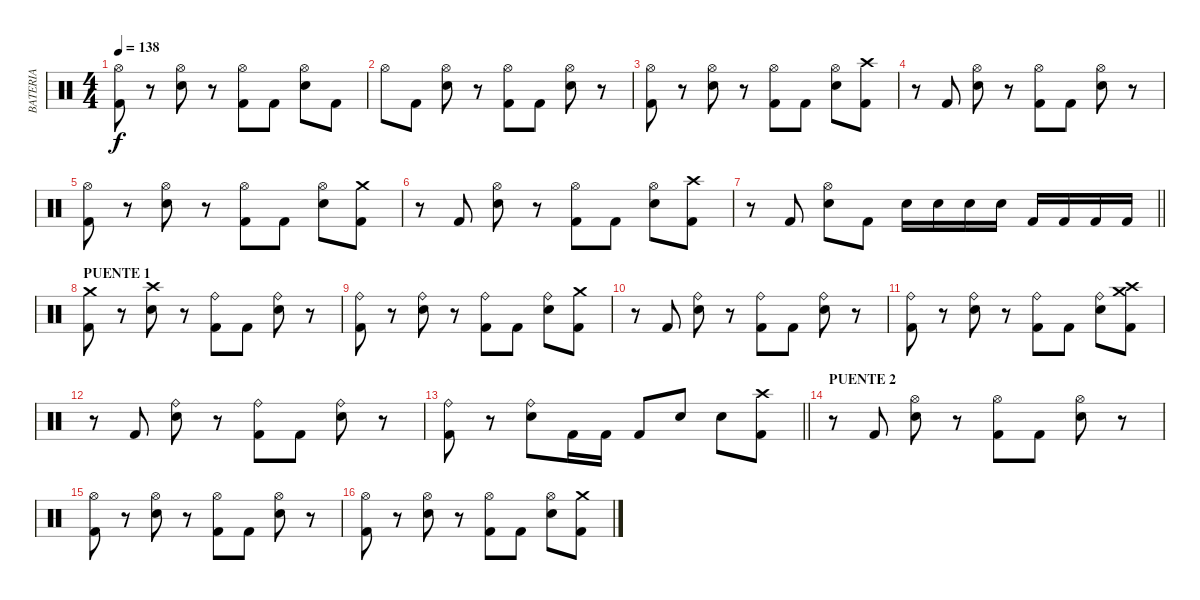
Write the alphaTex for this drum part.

\track ("BATERIA" "BATERIA") {instrument percussion}
\staff {score}
\articulation defaults
\ts (4 4)
\tempo 138
\clef neutral
\ks c
("Kick (hit) 2" "Hi-Hat (open)").8{dy f} r.8 ("Electric Snare (hit)" "Hi-Hat (open)").8 r.8 ("Kick (hit) 2" "Hi-Hat (open)").8 "Kick (hit) 2".8 ("Electric Snare (hit)" "Hi-Hat (open)").8 "Kick (hit) 2".8 |
"Hi-Hat (open)".8 "Kick (hit) 2".8 ("Electric Snare (hit)" "Hi-Hat (open)").8 r.8 ("Kick (hit) 2" "Hi-Hat (open)").8 "Kick (hit) 2".8 ("Electric Snare (hit)" "Hi-Hat (open)").8 r.8 |
("Kick (hit) 2" "Hi-Hat (open)").8 r.8 ("Electric Snare (hit)" "Hi-Hat (open)").8 r.8 ("Kick (hit) 2" "Hi-Hat (open)").8 "Kick (hit) 2".8 ("Electric Snare (hit)" "Hi-Hat (open)").8 ("Kick (hit) 2" "Crash high (hit)").8 |
r.8 "Kick (hit) 2".8 ("Electric Snare (hit)" "Hi-Hat (open)").8 r.8 ("Kick (hit) 2" "Hi-Hat (open)").8 "Kick (hit) 2".8 ("Electric Snare (hit)" "Hi-Hat (open)").8 r.8 |
("Kick (hit) 2" "Hi-Hat (open)").8 r.8 ("Electric Snare (hit)" "Hi-Hat (open)").8 r.8 ("Kick (hit) 2" "Hi-Hat (open)").8 "Kick (hit) 2".8 ("Electric Snare (hit)" "Hi-Hat (open)").8 ("Kick (hit) 2" "Crash medium (hit)").8 |
r.8 "Kick (hit) 2".8 ("Electric Snare (hit)" "Hi-Hat (open)").8 r.8 ("Kick (hit) 2" "Hi-Hat (open)").8 "Kick (hit) 2".8 ("Electric Snare (hit)" "Hi-Hat (open)").8 ("Kick (hit) 2" "Crash high (hit)").8 |
\barLineRight lightlight
r.8 "Kick (hit) 2".8 ("Electric Snare (hit)" "Hi-Hat (open)").8 "Kick (hit) 2".8 "Electric Snare (hit)".16 "Electric Snare (hit)".16 "Electric Snare (hit)".16 "Electric Snare (hit)".16 "Kick (hit) 2".16 "Kick (hit) 2".16 "Kick (hit) 2".16 "Kick (hit) 2".16 |
\section ("" "PUENTE 1")
("Kick (hit) 2" "Crash medium (hit)").8 r.8 ("Electric Snare (hit)" "Crash high (hit)").8 r.8 ("Kick (hit) 2" "Ride (bell)").8 "Kick (hit) 2".8 ("Electric Snare (hit)" "Ride (bell)").8 r.8 |
("Kick (hit) 2" "Ride (bell)").8 r.8 ("Electric Snare (hit)" "Ride (bell)").8 r.8 ("Kick (hit) 2" "Ride (bell)").8 "Kick (hit) 2".8 ("Electric Snare (hit)" "Ride (bell)").8 ("Kick (hit) 2" "Crash medium (hit)").8 |
r.8 "Kick (hit) 2".8 ("Electric Snare (hit)" "Ride (bell)").8 r.8 ("Kick (hit) 2" "Ride (bell)").8 "Kick (hit) 2".8 ("Electric Snare (hit)" "Ride (bell)").8 r.8 |
("Kick (hit) 2" "Ride (bell)").8 r.8 ("Electric Snare (hit)" "Ride (bell)").8 r.8 ("Kick (hit) 2" "Ride (bell)").8 "Kick (hit) 2".8 ("Electric Snare (hit)" "Ride (bell)").8 ("Kick (hit) 2" "Crash high (hit)" "Crash medium (hit)").8 |
r.8 "Kick (hit) 2".8 ("Electric Snare (hit)" "Ride (bell)").8 r.8 ("Kick (hit) 2" "Ride (bell)").8 "Kick (hit) 2".8 ("Electric Snare (hit)" "Ride (bell)").8 r.8 |
\barLineRight lightlight
("Kick (hit) 2" "Ride (bell)").8 r.8 ("Electric Snare (hit)" "Ride (bell)").8 "Kick (hit) 2".16 "Kick (hit) 2".16 "Kick (hit) 2".8 "Electric Snare (hit)".8 "Electric Snare (hit)".8 ("Kick (hit) 2" "Crash high (hit)").8 |
\section ("" "PUENTE 2")
r.8 "Kick (hit) 2".8 ("Electric Snare (hit)" "Hi-Hat (open)").8 r.8 ("Kick (hit) 2" "Hi-Hat (open)").8 "Kick (hit) 2".8 ("Electric Snare (hit)" "Hi-Hat (open)").8 r.8 |
("Kick (hit) 2" "Hi-Hat (open)").8 r.8 ("Electric Snare (hit)" "Hi-Hat (open)").8 r.8 ("Kick (hit) 2" "Hi-Hat (open)").8 "Kick (hit) 2".8 ("Electric Snare (hit)" "Hi-Hat (open)").8 r.8 |
("Kick (hit) 2" "Hi-Hat (open)").8 r.8 ("Electric Snare (hit)" "Hi-Hat (open)").8 r.8 ("Kick (hit) 2" "Hi-Hat (open)").8 "Kick (hit) 2".8 ("Electric Snare (hit)" "Hi-Hat (open)").8 ("Kick (hit) 2" "Crash medium (hit)").8
